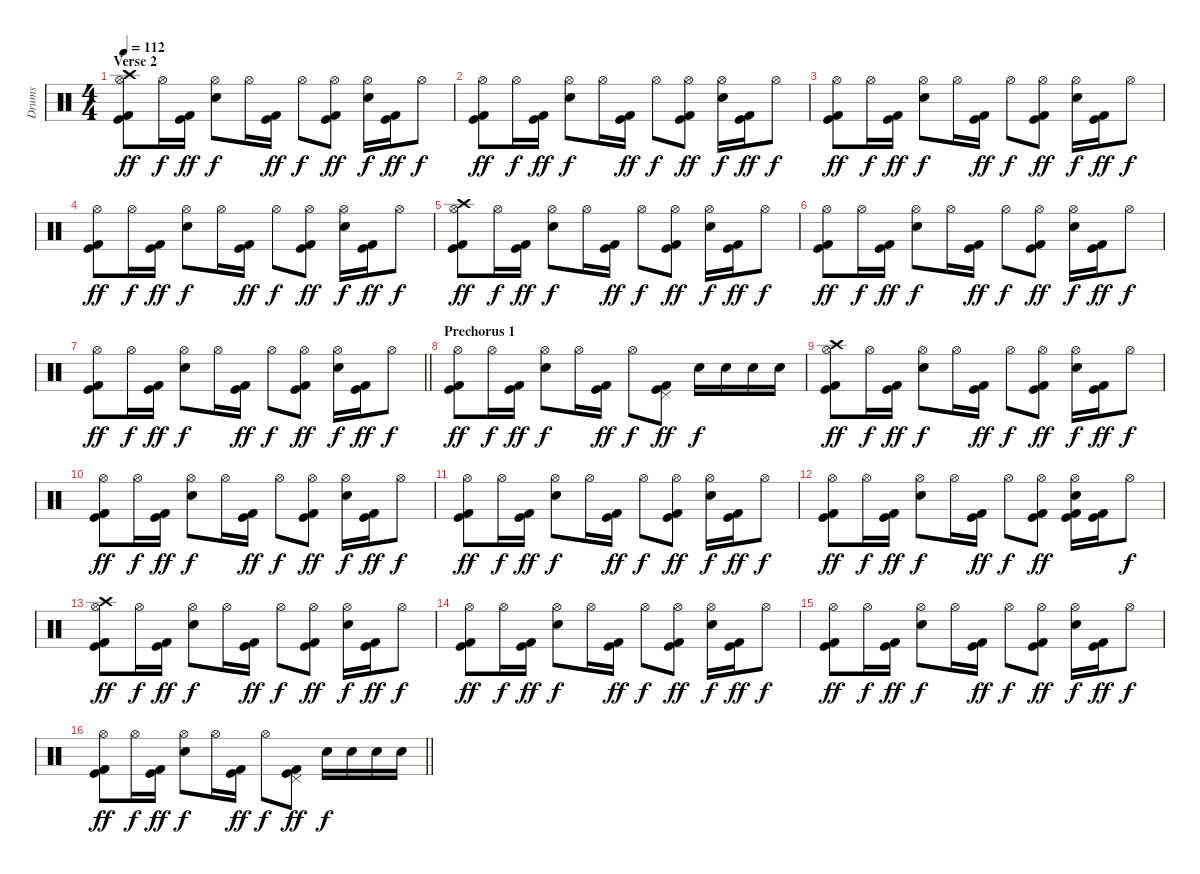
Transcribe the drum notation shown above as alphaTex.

\track ("Drums" "Drums") {instrument percussion}
\staff {score}
\articulation defaults
\ts (4 4)
\section ("" "Verse 2")
\tempo 112
\clef neutral
\ks c
("Crash high (hit)" "Hi-Hat (open)" "Kick (hit)" "Kick (hit) 2").8{dy ff} "Hi-Hat (open)".16{dy f} ("Kick (hit)" "Kick (hit) 2").16{dy ff} ("Hi-Hat (open)" "Snare (hit) 2").8{dy f} "Hi-Hat (open)".16 ("Kick (hit)" "Kick (hit) 2").16{dy ff} "Hi-Hat (open)".8{dy f} ("Hi-Hat (open)" "Kick (hit)" "Kick (hit) 2").8{dy ff} ("Hi-Hat (open)" "Snare (hit) 2").16{dy f} ("Kick (hit)" "Kick (hit) 2").16{dy ff} "Hi-Hat (open)".8{dy f} |
("Hi-Hat (open)" "Kick (hit)" "Kick (hit) 2").8{dy ff} "Hi-Hat (open)".16{dy f} ("Kick (hit)" "Kick (hit) 2").16{dy ff} ("Hi-Hat (open)" "Snare (hit) 2").8{dy f} "Hi-Hat (open)".16 ("Kick (hit)" "Kick (hit) 2").16{dy ff} "Hi-Hat (open)".8{dy f} ("Hi-Hat (open)" "Kick (hit)" "Kick (hit) 2").8{dy ff} ("Hi-Hat (open)" "Snare (hit) 2").16{dy f} ("Kick (hit)" "Kick (hit) 2").16{dy ff} "Hi-Hat (open)".8{dy f} |
("Hi-Hat (open)" "Kick (hit)" "Kick (hit) 2").8{dy ff} "Hi-Hat (open)".16{dy f} ("Kick (hit)" "Kick (hit) 2").16{dy ff} ("Hi-Hat (open)" "Snare (hit) 2").8{dy f} "Hi-Hat (open)".16 ("Kick (hit)" "Kick (hit) 2").16{dy ff} "Hi-Hat (open)".8{dy f} ("Hi-Hat (open)" "Kick (hit)" "Kick (hit) 2").8{dy ff} ("Hi-Hat (open)" "Snare (hit) 2").16{dy f} ("Kick (hit)" "Kick (hit) 2").16{dy ff} "Hi-Hat (open)".8{dy f} |
("Hi-Hat (open)" "Kick (hit)" "Kick (hit) 2").8{dy ff} "Hi-Hat (open)".16{dy f} ("Kick (hit)" "Kick (hit) 2").16{dy ff} ("Hi-Hat (open)" "Snare (hit) 2").8{dy f} "Hi-Hat (open)".16 ("Kick (hit)" "Kick (hit) 2").16{dy ff} "Hi-Hat (open)".8{dy f} ("Hi-Hat (open)" "Kick (hit)" "Kick (hit) 2").8{dy ff} ("Hi-Hat (open)" "Snare (hit) 2").16{dy f} ("Kick (hit)" "Kick (hit) 2").16{dy ff} "Hi-Hat (open)".8{dy f} |
("Crash high (hit)" "Hi-Hat (open)" "Kick (hit)" "Kick (hit) 2").8{dy ff} "Hi-Hat (open)".16{dy f} ("Kick (hit)" "Kick (hit) 2").16{dy ff} ("Hi-Hat (open)" "Snare (hit) 2").8{dy f} "Hi-Hat (open)".16 ("Kick (hit)" "Kick (hit) 2").16{dy ff} "Hi-Hat (open)".8{dy f} ("Hi-Hat (open)" "Kick (hit)" "Kick (hit) 2").8{dy ff} ("Hi-Hat (open)" "Snare (hit) 2").16{dy f} ("Kick (hit)" "Kick (hit) 2").16{dy ff} "Hi-Hat (open)".8{dy f} |
("Hi-Hat (open)" "Kick (hit)" "Kick (hit) 2").8{dy ff} "Hi-Hat (open)".16{dy f} ("Kick (hit)" "Kick (hit) 2").16{dy ff} ("Hi-Hat (open)" "Snare (hit) 2").8{dy f} "Hi-Hat (open)".16 ("Kick (hit)" "Kick (hit) 2").16{dy ff} "Hi-Hat (open)".8{dy f} ("Hi-Hat (open)" "Kick (hit)" "Kick (hit) 2").8{dy ff} ("Hi-Hat (open)" "Snare (hit) 2").16{dy f} ("Kick (hit)" "Kick (hit) 2").16{dy ff} "Hi-Hat (open)".8{dy f} |
\barLineRight lightlight
("Hi-Hat (open)" "Kick (hit)" "Kick (hit) 2").8{dy ff} "Hi-Hat (open)".16{dy f} ("Kick (hit)" "Kick (hit) 2").16{dy ff} ("Hi-Hat (open)" "Snare (hit) 2").8{dy f} "Hi-Hat (open)".16 ("Kick (hit)" "Kick (hit) 2").16{dy ff} "Hi-Hat (open)".8{dy f} ("Hi-Hat (open)" "Kick (hit)" "Kick (hit) 2").8{dy ff} ("Hi-Hat (open)" "Snare (hit) 2").16{dy f} ("Kick (hit)" "Kick (hit) 2").16{dy ff} "Hi-Hat (open)".8{dy f} |
\section ("" "Prechorus 1")
("Hi-Hat (open)" "Kick (hit)" "Kick (hit) 2").8{dy ff} "Hi-Hat (open)".16{dy f} ("Kick (hit)" "Kick (hit) 2").16{dy ff} ("Hi-Hat (open)" "Snare (hit) 2").8{dy f} "Hi-Hat (open)".16 ("Kick (hit)" "Kick (hit) 2").16{dy ff} "Hi-Hat (open)".8{dy f} ("Pedal Hi-Hat (hit)" "Kick (hit)" "Kick (hit) 2").8{dy ff} "Snare (hit) 2".16{dy f} "Snare (hit) 2".16 "Snare (hit) 2".16 "Snare (hit) 2".16 |
("Crash high (hit)" "Hi-Hat (open)" "Kick (hit)" "Kick (hit) 2").8{dy ff} "Hi-Hat (open)".16{dy f} ("Kick (hit)" "Kick (hit) 2").16{dy ff} ("Hi-Hat (open)" "Snare (hit) 2").8{dy f} "Hi-Hat (open)".16 ("Kick (hit)" "Kick (hit) 2").16{dy ff} "Hi-Hat (open)".8{dy f} ("Hi-Hat (open)" "Kick (hit)" "Kick (hit) 2").8{dy ff} ("Hi-Hat (open)" "Snare (hit) 2").16{dy f} ("Kick (hit)" "Kick (hit) 2").16{dy ff} "Hi-Hat (open)".8{dy f} |
("Hi-Hat (open)" "Kick (hit)" "Kick (hit) 2").8{dy ff} "Hi-Hat (open)".16{dy f} ("Kick (hit)" "Kick (hit) 2").16{dy ff} ("Hi-Hat (open)" "Snare (hit) 2").8{dy f} "Hi-Hat (open)".16 ("Kick (hit)" "Kick (hit) 2").16{dy ff} "Hi-Hat (open)".8{dy f} ("Hi-Hat (open)" "Kick (hit)" "Kick (hit) 2").8{dy ff} ("Hi-Hat (open)" "Snare (hit) 2").16{dy f} ("Kick (hit)" "Kick (hit) 2").16{dy ff} "Hi-Hat (open)".8{dy f} |
("Hi-Hat (open)" "Kick (hit)" "Kick (hit) 2").8{dy ff} "Hi-Hat (open)".16{dy f} ("Kick (hit)" "Kick (hit) 2").16{dy ff} ("Hi-Hat (open)" "Snare (hit) 2").8{dy f} "Hi-Hat (open)".16 ("Kick (hit)" "Kick (hit) 2").16{dy ff} "Hi-Hat (open)".8{dy f} ("Hi-Hat (open)" "Kick (hit)" "Kick (hit) 2").8{dy ff} ("Hi-Hat (open)" "Snare (hit) 2").16{dy f} ("Kick (hit)" "Kick (hit) 2").16{dy ff} "Hi-Hat (open)".8{dy f} |
("Hi-Hat (open)" "Kick (hit)" "Kick (hit) 2").8{dy ff} "Hi-Hat (open)".16{dy f} ("Kick (hit)" "Kick (hit) 2").16{dy ff} ("Hi-Hat (open)" "Snare (hit) 2").8{dy f} "Hi-Hat (open)".16 ("Kick (hit)" "Kick (hit) 2").16{dy ff} "Hi-Hat (open)".8{dy f} ("Hi-Hat (open)" "Kick (hit)" "Kick (hit) 2").8{dy ff} ("Hi-Hat (open)" "Snare (hit) 2" "Kick (hit)" "Kick (hit) 2").16 ("Kick (hit)" "Kick (hit) 2").16 "Hi-Hat (open)".8{dy f} |
("Crash high (hit)" "Hi-Hat (open)" "Kick (hit)" "Kick (hit) 2").8{dy ff} "Hi-Hat (open)".16{dy f} ("Kick (hit)" "Kick (hit) 2").16{dy ff} ("Hi-Hat (open)" "Snare (hit) 2").8{dy f} "Hi-Hat (open)".16 ("Kick (hit)" "Kick (hit) 2").16{dy ff} "Hi-Hat (open)".8{dy f} ("Hi-Hat (open)" "Kick (hit)" "Kick (hit) 2").8{dy ff} ("Hi-Hat (open)" "Snare (hit) 2").16{dy f} ("Kick (hit)" "Kick (hit) 2").16{dy ff} "Hi-Hat (open)".8{dy f} |
("Hi-Hat (open)" "Kick (hit)" "Kick (hit) 2").8{dy ff} "Hi-Hat (open)".16{dy f} ("Kick (hit)" "Kick (hit) 2").16{dy ff} ("Hi-Hat (open)" "Snare (hit) 2").8{dy f} "Hi-Hat (open)".16 ("Kick (hit)" "Kick (hit) 2").16{dy ff} "Hi-Hat (open)".8{dy f} ("Hi-Hat (open)" "Kick (hit)" "Kick (hit) 2").8{dy ff} ("Hi-Hat (open)" "Snare (hit) 2").16{dy f} ("Kick (hit)" "Kick (hit) 2").16{dy ff} "Hi-Hat (open)".8{dy f} |
("Hi-Hat (open)" "Kick (hit)" "Kick (hit) 2").8{dy ff} "Hi-Hat (open)".16{dy f} ("Kick (hit)" "Kick (hit) 2").16{dy ff} ("Hi-Hat (open)" "Snare (hit) 2").8{dy f} "Hi-Hat (open)".16 ("Kick (hit)" "Kick (hit) 2").16{dy ff} "Hi-Hat (open)".8{dy f} ("Hi-Hat (open)" "Kick (hit)" "Kick (hit) 2").8{dy ff} ("Hi-Hat (open)" "Snare (hit) 2").16{dy f} ("Kick (hit)" "Kick (hit) 2").16{dy ff} "Hi-Hat (open)".8{dy f} |
\barLineRight lightlight
("Hi-Hat (open)" "Kick (hit)" "Kick (hit) 2").8{dy ff} "Hi-Hat (open)".16{dy f} ("Kick (hit)" "Kick (hit) 2").16{dy ff} ("Hi-Hat (open)" "Snare (hit) 2").8{dy f} "Hi-Hat (open)".16 ("Kick (hit)" "Kick (hit) 2").16{dy ff} "Hi-Hat (open)".8{dy f} ("Pedal Hi-Hat (hit)" "Kick (hit)" "Kick (hit) 2").8{dy ff} "Snare (hit) 2".16{dy f} "Snare (hit) 2".16 "Snare (hit) 2".16 "Snare (hit) 2".16
